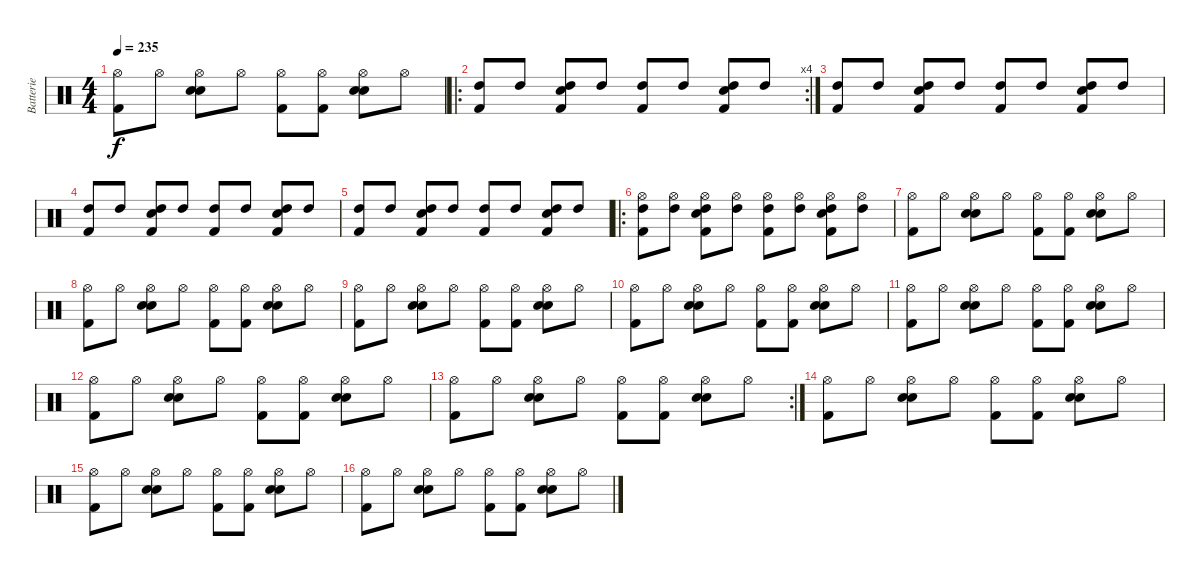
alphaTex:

\track ("Batterie" "Batterie") {instrument percussion}
\staff {score}
\articulation defaults
\ts (4 4)
\tempo 235
\clef neutral
\ks c
("Kick (hit) 2" "Hi-Hat (open)").8{dy f} "Hi-Hat (open)".8 ("Electric Snare (hit)" "Electric Snare (hit)" "Hi-Hat (open)").8 "Hi-Hat (open)".8 ("Kick (hit) 2" "Hi-Hat (open)").8 ("Kick (hit) 2" "Hi-Hat (open)").8 ("Electric Snare (hit)" "Electric Snare (hit)" "Hi-Hat (open)").8 "Hi-Hat (open)".8 |
\ro
\rc 4
("Kick (hit) 2" "High Tom (hit)").8 "High Tom (hit)".8 ("Kick (hit) 2" "High Tom (hit)" "Electric Snare (hit)").8 "High Tom (hit)".8 ("Kick (hit) 2" "High Tom (hit)").8 "High Tom (hit)".8 ("Kick (hit) 2" "High Tom (hit)" "Electric Snare (hit)").8 "High Tom (hit)".8 |
("Kick (hit) 2" "High Tom (hit)").8 "High Tom (hit)".8 ("Kick (hit) 2" "High Tom (hit)" "Electric Snare (hit)").8 "High Tom (hit)".8 ("Kick (hit) 2" "High Tom (hit)").8 "High Tom (hit)".8 ("Kick (hit) 2" "High Tom (hit)" "Electric Snare (hit)").8 "High Tom (hit)".8 |
("Kick (hit) 2" "High Tom (hit)").8 "High Tom (hit)".8 ("Kick (hit) 2" "High Tom (hit)" "Electric Snare (hit)").8 "High Tom (hit)".8 ("Kick (hit) 2" "High Tom (hit)").8 "High Tom (hit)".8 ("Kick (hit) 2" "High Tom (hit)" "Electric Snare (hit)").8 "High Tom (hit)".8 |
("Kick (hit) 2" "High Tom (hit)").8 "High Tom (hit)".8 ("Kick (hit) 2" "High Tom (hit)" "Electric Snare (hit)").8 "High Tom (hit)".8 ("Kick (hit) 2" "High Tom (hit)").8 "High Tom (hit)".8 ("Kick (hit) 2" "High Tom (hit)" "Electric Snare (hit)").8 "High Tom (hit)".8 |
\ro
("Hi-Hat (open)" "Kick (hit) 2" "High Tom (hit)").8 ("Hi-Hat (open)" "High Tom (hit)").8 ("Hi-Hat (open)" "Kick (hit) 2" "High Tom (hit)" "Electric Snare (hit)").8 ("Hi-Hat (open)" "High Tom (hit)").8 ("Hi-Hat (open)" "Kick (hit) 2" "High Tom (hit)").8 ("Hi-Hat (open)" "High Tom (hit)").8 ("Hi-Hat (open)" "Kick (hit) 2" "High Tom (hit)" "Electric Snare (hit)").8 ("Hi-Hat (open)" "High Tom (hit)").8 |
("Kick (hit) 2" "Hi-Hat (open)").8 "Hi-Hat (open)".8 ("Electric Snare (hit)" "Electric Snare (hit)" "Hi-Hat (open)").8 "Hi-Hat (open)".8 ("Kick (hit) 2" "Hi-Hat (open)").8 ("Kick (hit) 2" "Hi-Hat (open)").8 ("Electric Snare (hit)" "Electric Snare (hit)" "Hi-Hat (open)").8 "Hi-Hat (open)".8 |
("Kick (hit) 2" "Hi-Hat (open)").8 "Hi-Hat (open)".8 ("Electric Snare (hit)" "Electric Snare (hit)" "Hi-Hat (open)").8 "Hi-Hat (open)".8 ("Kick (hit) 2" "Hi-Hat (open)").8 ("Kick (hit) 2" "Hi-Hat (open)").8 ("Electric Snare (hit)" "Electric Snare (hit)" "Hi-Hat (open)").8 "Hi-Hat (open)".8 |
("Kick (hit) 2" "Hi-Hat (open)").8 "Hi-Hat (open)".8 ("Electric Snare (hit)" "Electric Snare (hit)" "Hi-Hat (open)").8 "Hi-Hat (open)".8 ("Kick (hit) 2" "Hi-Hat (open)").8 ("Kick (hit) 2" "Hi-Hat (open)").8 ("Electric Snare (hit)" "Electric Snare (hit)" "Hi-Hat (open)").8 "Hi-Hat (open)".8 |
("Kick (hit) 2" "Hi-Hat (open)").8 "Hi-Hat (open)".8 ("Electric Snare (hit)" "Electric Snare (hit)" "Hi-Hat (open)").8 "Hi-Hat (open)".8 ("Kick (hit) 2" "Hi-Hat (open)").8 ("Kick (hit) 2" "Hi-Hat (open)").8 ("Electric Snare (hit)" "Electric Snare (hit)" "Hi-Hat (open)").8 "Hi-Hat (open)".8 |
("Kick (hit) 2" "Hi-Hat (open)").8 "Hi-Hat (open)".8 ("Electric Snare (hit)" "Electric Snare (hit)" "Hi-Hat (open)").8 "Hi-Hat (open)".8 ("Kick (hit) 2" "Hi-Hat (open)").8 ("Kick (hit) 2" "Hi-Hat (open)").8 ("Electric Snare (hit)" "Electric Snare (hit)" "Hi-Hat (open)").8 "Hi-Hat (open)".8 |
("Kick (hit) 2" "Hi-Hat (open)").8 "Hi-Hat (open)".8 ("Electric Snare (hit)" "Electric Snare (hit)" "Hi-Hat (open)").8 "Hi-Hat (open)".8 ("Kick (hit) 2" "Hi-Hat (open)").8 ("Kick (hit) 2" "Hi-Hat (open)").8 ("Electric Snare (hit)" "Electric Snare (hit)" "Hi-Hat (open)").8 "Hi-Hat (open)".8 |
\rc 2
("Kick (hit) 2" "Hi-Hat (open)").8 "Hi-Hat (open)".8 ("Electric Snare (hit)" "Electric Snare (hit)" "Hi-Hat (open)").8 "Hi-Hat (open)".8 ("Kick (hit) 2" "Hi-Hat (open)").8 ("Kick (hit) 2" "Hi-Hat (open)").8 ("Electric Snare (hit)" "Electric Snare (hit)" "Hi-Hat (open)").8 "Hi-Hat (open)".8 |
("Kick (hit) 2" "Hi-Hat (open)").8 "Hi-Hat (open)".8 ("Electric Snare (hit)" "Electric Snare (hit)" "Hi-Hat (open)").8 "Hi-Hat (open)".8 ("Kick (hit) 2" "Hi-Hat (open)").8 ("Kick (hit) 2" "Hi-Hat (open)").8 ("Electric Snare (hit)" "Electric Snare (hit)" "Hi-Hat (open)").8 "Hi-Hat (open)".8 |
("Kick (hit) 2" "Hi-Hat (open)").8 "Hi-Hat (open)".8 ("Electric Snare (hit)" "Electric Snare (hit)" "Hi-Hat (open)").8 "Hi-Hat (open)".8 ("Kick (hit) 2" "Hi-Hat (open)").8 ("Kick (hit) 2" "Hi-Hat (open)").8 ("Electric Snare (hit)" "Electric Snare (hit)" "Hi-Hat (open)").8 "Hi-Hat (open)".8 |
("Kick (hit) 2" "Hi-Hat (open)").8 "Hi-Hat (open)".8 ("Electric Snare (hit)" "Electric Snare (hit)" "Hi-Hat (open)").8 "Hi-Hat (open)".8 ("Kick (hit) 2" "Hi-Hat (open)").8 ("Kick (hit) 2" "Hi-Hat (open)").8 ("Electric Snare (hit)" "Electric Snare (hit)" "Hi-Hat (open)").8 "Hi-Hat (open)".8
